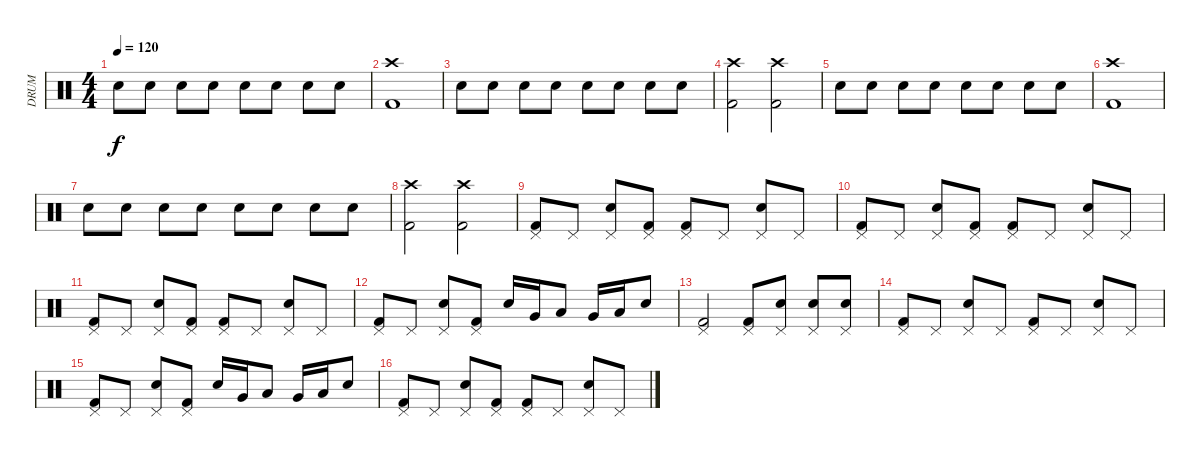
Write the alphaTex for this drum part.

\track ("DRUM" "DRUM") {instrument percussion}
\staff {score}
\articulation defaults
\ts (4 4)
\tempo 120
\clef neutral
\ks c "Electric Snare (hit)".8{dy f} "Electric Snare (hit)".8 "Electric Snare (hit)".8 "Electric Snare (hit)".8 "Electric Snare (hit)".8 "Electric Snare (hit)".8 "Electric Snare (hit)".8 "Electric Snare (hit)".8
|
("Kick (hit) 2" "Crash high (hit)").1 |
"Electric Snare (hit)".8 "Electric Snare (hit)".8 "Electric Snare (hit)".8 "Electric Snare (hit)".8 "Electric Snare (hit)".8 "Electric Snare (hit)".8 "Electric Snare (hit)".8 "Electric Snare (hit)".8 |
("Kick (hit) 2" "Crash high (hit)").2 ("Kick (hit) 2" "Crash high (hit)").2 |
"Electric Snare (hit)".8 "Electric Snare (hit)".8 "Electric Snare (hit)".8 "Electric Snare (hit)".8 "Electric Snare (hit)".8 "Electric Snare (hit)".8 "Electric Snare (hit)".8 "Electric Snare (hit)".8 |
("Kick (hit) 2" "Crash high (hit)").1 |
"Electric Snare (hit)".8 "Electric Snare (hit)".8 "Electric Snare (hit)".8 "Electric Snare (hit)".8 "Electric Snare (hit)".8 "Electric Snare (hit)".8 "Electric Snare (hit)".8 "Electric Snare (hit)".8 |
("Kick (hit) 2" "Crash high (hit)").2 ("Kick (hit) 2" "Crash high (hit)").2 |
("Kick (hit) 2" "Pedal Hi-Hat (hit)").8 "Pedal Hi-Hat (hit)".8 ("Electric Snare (hit)" "Pedal Hi-Hat (hit)").8 ("Kick (hit) 2" "Pedal Hi-Hat (hit)").8 ("Kick (hit) 2" "Pedal Hi-Hat (hit)").8 "Pedal Hi-Hat (hit)".8 ("Electric Snare (hit)" "Pedal Hi-Hat (hit)").8 "Pedal Hi-Hat (hit)".8 |
("Kick (hit) 2" "Pedal Hi-Hat (hit)").8 "Pedal Hi-Hat (hit)".8 ("Electric Snare (hit)" "Pedal Hi-Hat (hit)").8 ("Kick (hit) 2" "Pedal Hi-Hat (hit)").8 ("Kick (hit) 2" "Pedal Hi-Hat (hit)").8 "Pedal Hi-Hat (hit)".8 ("Electric Snare (hit)" "Pedal Hi-Hat (hit)").8 "Pedal Hi-Hat (hit)".8 |
("Kick (hit) 2" "Pedal Hi-Hat (hit)").8 "Pedal Hi-Hat (hit)".8 ("Electric Snare (hit)" "Pedal Hi-Hat (hit)").8 ("Kick (hit) 2" "Pedal Hi-Hat (hit)").8 ("Kick (hit) 2" "Pedal Hi-Hat (hit)").8 "Pedal Hi-Hat (hit)".8 ("Electric Snare (hit)" "Pedal Hi-Hat (hit)").8 "Pedal Hi-Hat (hit)".8 |
("Kick (hit) 2" "Pedal Hi-Hat (hit)").8 "Pedal Hi-Hat (hit)".8 ("Electric Snare (hit)" "Pedal Hi-Hat (hit)").8 ("Kick (hit) 2" "Pedal Hi-Hat (hit)").8 "Electric Snare (hit)".16 "Very Low Tom (hit)".16 "Low Tom (hit)".8 "Very Low Tom (hit)".16 "Low Tom (hit)".16 "Electric Snare (hit)".8 |
("Kick (hit) 2" "Pedal Hi-Hat (hit)").2 ("Kick (hit) 2" "Pedal Hi-Hat (hit)").8 ("Electric Snare (hit)" "Pedal Hi-Hat (hit)").8 ("Electric Snare (hit)" "Pedal Hi-Hat (hit)").8 ("Electric Snare (hit)" "Pedal Hi-Hat (hit)").8 |
("Kick (hit) 2" "Pedal Hi-Hat (hit)").8 "Pedal Hi-Hat (hit)".8 ("Electric Snare (hit)" "Pedal Hi-Hat (hit)").8 "Pedal Hi-Hat (hit)".8 ("Kick (hit) 2" "Pedal Hi-Hat (hit)").8 "Pedal Hi-Hat (hit)".8 ("Electric Snare (hit)" "Pedal Hi-Hat (hit)").8 "Pedal Hi-Hat (hit)".8 |
("Kick (hit) 2" "Pedal Hi-Hat (hit)").8 "Pedal Hi-Hat (hit)".8 ("Electric Snare (hit)" "Pedal Hi-Hat (hit)").8 ("Kick (hit) 2" "Pedal Hi-Hat (hit)").8 "Electric Snare (hit)".16 "Very Low Tom (hit)".16 "Low Tom (hit)".8 "Very Low Tom (hit)".16 "Low Tom (hit)".16 "Electric Snare (hit)".8 |
("Kick (hit) 2" "Pedal Hi-Hat (hit)").8 "Pedal Hi-Hat (hit)".8 ("Electric Snare (hit)" "Pedal Hi-Hat (hit)").8 ("Kick (hit) 2" "Pedal Hi-Hat (hit)").8 ("Kick (hit) 2" "Pedal Hi-Hat (hit)").8 "Pedal Hi-Hat (hit)".8 ("Electric Snare (hit)" "Pedal Hi-Hat (hit)").8 "Pedal Hi-Hat (hit)".8
